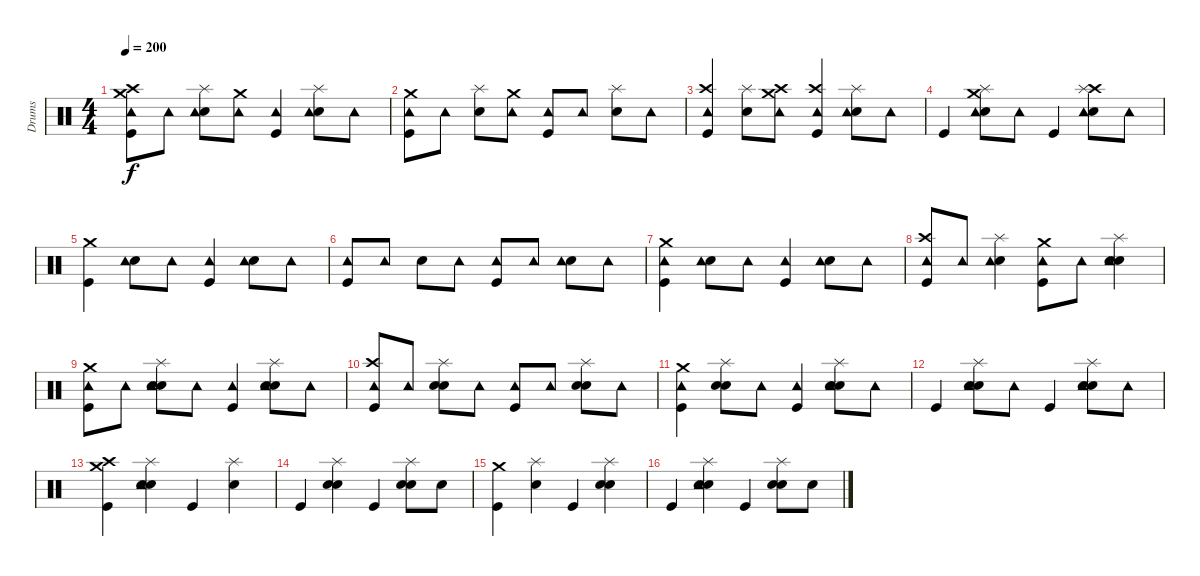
\track ("Drums" "Drums") {instrument percussion}
\staff {score}
\articulation defaults
\ts (4 4)
\tempo 200
\clef neutral
\ks c
("Kick (hit)" "Crash high (hit)" "Tambourine (hit)" "Crash medium (hit)").8{dy f} "Tambourine (hit)".8 ("Snare (hit) 2" "Tambourine (hit)" "Splash (hit)").8 ("Tambourine (hit)" "Crash medium (hit)").8 ("Kick (hit)" "Tambourine (hit)").4 ("Snare (hit) 2" "Tambourine (hit)" "Splash (hit)").8 "Tambourine (hit)".8 |
("Kick (hit)" "Tambourine (hit)" "Crash medium (hit)").8 "Tambourine (hit)".8 ("Snare (hit) 2" "Splash (hit)").8 ("Tambourine (hit)" "Crash medium (hit)").8 ("Kick (hit)" "Tambourine (hit)").8 "Tambourine (hit)".8 ("Snare (hit) 2" "Splash (hit)").8 "Tambourine (hit)".8 |
("Kick (hit)" "Crash high (hit)" "Tambourine (hit)").4 ("Snare (hit) 2" "Splash (hit)").8 ("Crash high (hit)" "Tambourine (hit)" "Crash medium (hit)").8 ("Kick (hit)" "Crash high (hit)" "Tambourine (hit)").4 ("Snare (hit) 2" "Tambourine (hit)" "Splash (hit)").8 "Tambourine (hit)".8 |
"Kick (hit)".4 ("Snare (hit) 2" "Tambourine (hit)" "Splash (hit)" "Crash medium (hit)").8 "Tambourine (hit)".8 "Kick (hit)".4 ("Snare (hit) 2" "Crash high (hit)" "Tambourine (hit)" "Splash (hit)").8 "Tambourine (hit)".8 |
("Kick (hit)" "Crash medium (hit)").4 ("Snare (hit) 2" "Tambourine (hit)").8 "Tambourine (hit)".8 ("Kick (hit)" "Tambourine (hit)").4 ("Snare (hit) 2" "Tambourine (hit)").8 "Tambourine (hit)".8 |
("Kick (hit)" "Tambourine (hit)").8 "Tambourine (hit)".8 "Snare (hit) 2".8 "Tambourine (hit)".8 ("Kick (hit)" "Tambourine (hit)").8 "Tambourine (hit)".8 ("Snare (hit) 2" "Tambourine (hit)").8 "Tambourine (hit)".8 |
("Kick (hit)" "Tambourine (hit)" "Crash medium (hit)").4 ("Snare (hit) 2" "Tambourine (hit)").8 "Tambourine (hit)".8 ("Kick (hit)" "Tambourine (hit)").4 ("Snare (hit) 2" "Tambourine (hit)").8 "Tambourine (hit)".8 |
("Kick (hit)" "Crash high (hit)" "Tambourine (hit)").8 "Tambourine (hit)".8 ("Snare (hit) 2" "Tambourine (hit)" "Splash (hit)").4 ("Kick (hit)" "Tambourine (hit)" "Crash medium (hit)").8 "Tambourine (hit)".8 ("Snare (hit) 2" "Electric Snare (hit)" "Tambourine (hit)" "Splash (hit)").4 |
("Kick (hit)" "Tambourine (hit)" "Crash medium (hit)").8 "Tambourine (hit)".8 ("Snare (hit) 2" "Electric Snare (hit)" "Tambourine (hit)" "Splash (hit)").8 "Tambourine (hit)".8 ("Kick (hit)" "Tambourine (hit)").4 ("Snare (hit) 2" "Electric Snare (hit)" "Tambourine (hit)" "Splash (hit)").8 "Tambourine (hit)".8 |
("Kick (hit)" "Crash high (hit)" "Tambourine (hit)").8 "Tambourine (hit)".8 ("Snare (hit) 2" "Electric Snare (hit)" "Splash (hit)").8 "Tambourine (hit)".8 ("Kick (hit)" "Tambourine (hit)").8 "Tambourine (hit)".8 ("Snare (hit) 2" "Electric Snare (hit)" "Splash (hit)").8 "Tambourine (hit)".8 |
("Kick (hit)" "Tambourine (hit)" "Crash medium (hit)").4 ("Snare (hit) 2" "Electric Snare (hit)" "Splash (hit)").8 "Tambourine (hit)".8 ("Kick (hit)" "Tambourine (hit)").4 ("Snare (hit) 2" "Electric Snare (hit)" "Tambourine (hit)" "Splash (hit)").8 "Tambourine (hit)".8 |
"Kick (hit)".4 ("Snare (hit) 2" "Electric Snare (hit)" "Tambourine (hit)" "Splash (hit)").8 "Tambourine (hit)".8 "Kick (hit)".4 ("Snare (hit) 2" "Electric Snare (hit)" "Tambourine (hit)" "Splash (hit)").8 "Tambourine (hit)".8 |
("Kick (hit)" "Crash high (hit)" "Crash medium (hit)").4 ("Snare (hit) 2" "Electric Snare (hit)" "Tambourine (hit)" "Splash (hit)").4 "Kick (hit)".4 ("Snare (hit) 2" "Splash (hit)").4 |
"Kick (hit)".4 ("Snare (hit) 2" "Electric Snare (hit)" "Splash (hit)").4 "Kick (hit)".4 ("Snare (hit) 2" "Electric Snare (hit)" "Splash (hit)").8 "Electric Snare (hit)".8 |
("Kick (hit)" "Crash medium (hit)").4 ("Snare (hit) 2" "Splash (hit)").4 "Kick (hit)".4 ("Snare (hit) 2" "Electric Snare (hit)" "Splash (hit)").4 |
"Kick (hit)".4 ("Snare (hit) 2" "Electric Snare (hit)" "Tambourine (hit)" "Splash (hit)").4 "Kick (hit)".4 ("Snare (hit) 2" "Electric Snare (hit)" "Splash (hit)").8 "Electric Snare (hit)".8
